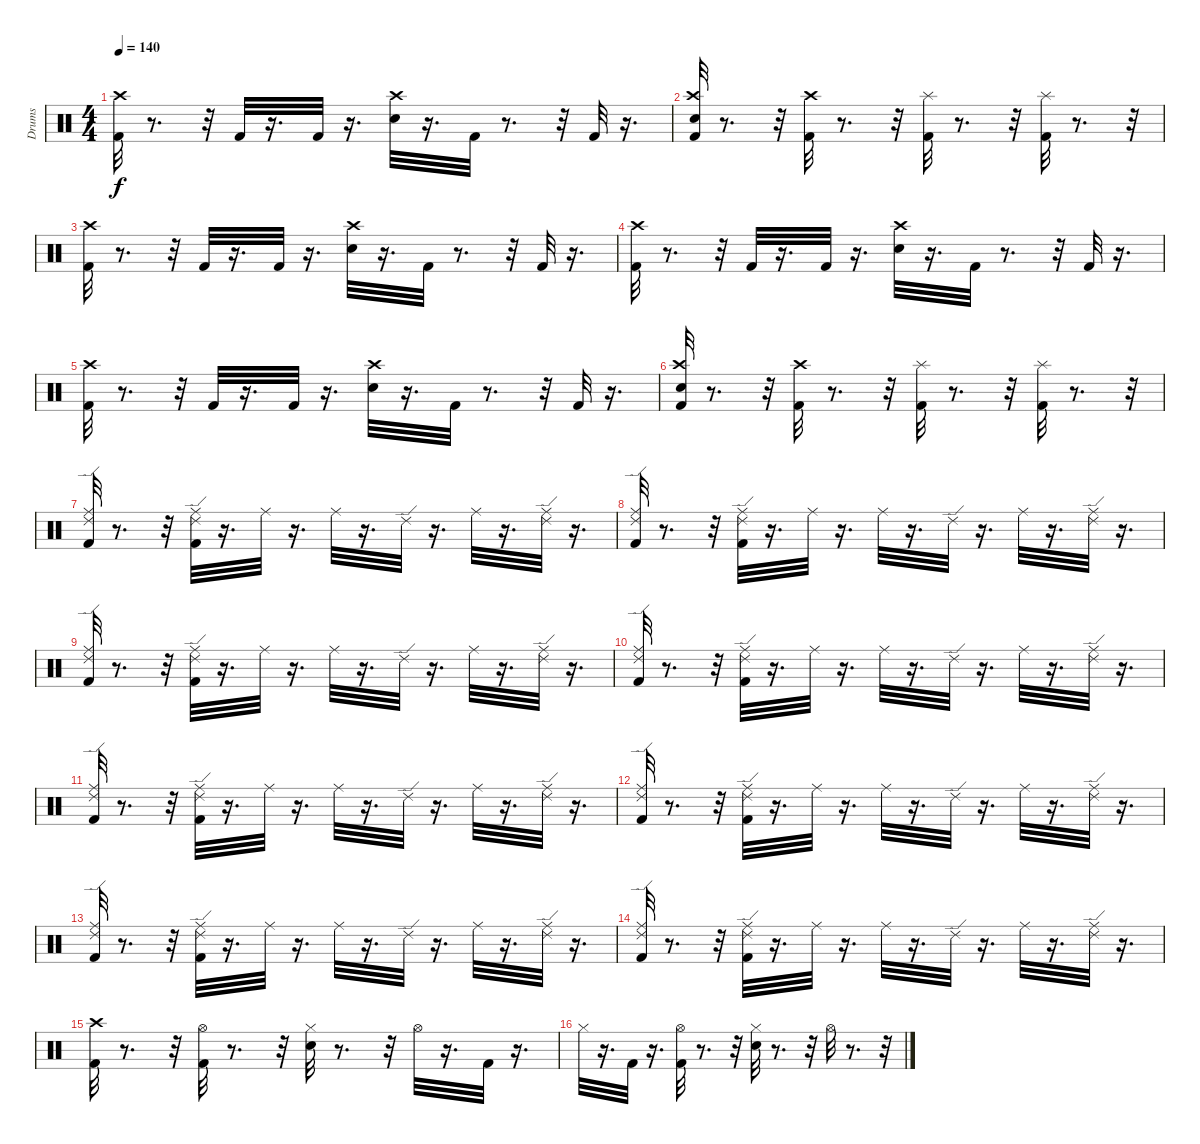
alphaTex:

\track ("Drums" "Drums") {instrument percussion}
\staff {score}
\articulation defaults
\ts (4 4)
\tempo 140
\clef neutral
\ks c
("Kick (hit) 2" "Crash high (hit)").32{dy f} r.8{d} r.32 "Kick (hit) 2".32 r.16{d} "Kick (hit) 2".32 r.16{d} ("Electric Snare (hit)" "Crash high (hit)").32 r.16{d} "Kick (hit) 2".32 r.8{d} r.32 "Kick (hit) 2".32 r.16{d} |
("Kick (hit) 2" "Electric Snare (hit)" "Crash high (hit)").32 r.8{d} r.32 ("Kick (hit) 2" "Crash high (hit)").32 r.8{d} r.32 ("Kick (hit) 2" "Splash (hit)").32 r.8{d} r.32 ("Kick (hit) 2" "Splash (hit)").32 r.8{d} r.32 |
("Kick (hit) 2" "Crash high (hit)").32 r.8{d} r.32 "Kick (hit) 2".32 r.16{d} "Kick (hit) 2".32 r.16{d} ("Electric Snare (hit)" "Crash high (hit)").32 r.16{d} "Kick (hit) 2".32 r.8{d} r.32 "Kick (hit) 2".32 r.16{d} |
("Kick (hit) 2" "Crash high (hit)").32 r.8{d} r.32 "Kick (hit) 2".32 r.16{d} "Kick (hit) 2".32 r.16{d} ("Electric Snare (hit)" "Crash high (hit)").32 r.16{d} "Kick (hit) 2".32 r.8{d} r.32 "Kick (hit) 2".32 r.16{d} |
("Kick (hit) 2" "Crash high (hit)").32 r.8{d} r.32 "Kick (hit) 2".32 r.16{d} "Kick (hit) 2".32 r.16{d} ("Electric Snare (hit)" "Crash high (hit)").32 r.16{d} "Kick (hit) 2".32 r.8{d} r.32 "Kick (hit) 2".32 r.16{d} |
("Kick (hit) 2" "Electric Snare (hit)" "Crash high (hit)").32 r.8{d} r.32 ("Kick (hit) 2" "Crash high (hit)").32 r.8{d} r.32 ("Kick (hit) 2" "Splash (hit)").32 r.8{d} r.32 ("Kick (hit) 2" "Splash (hit)").32 r.8{d} r.32 |
("Kick (hit) 2" "Ride (middle)" "Ride (edge) 2").32 r.8{d} r.32 ("Kick (hit) 2" "Ride (middle)" "Ride (edge) 2").32 r.16{d} "Ride (middle)".32 r.16{d} "Ride (middle)".32 r.16{d} "Ride (edge) 2".32 r.16{d} "Ride (middle)".32 r.16{d} ("Ride (middle)" "Ride (edge) 2").32 r.16{d} |
("Kick (hit) 2" "Ride (middle)" "Ride (edge) 2").32 r.8{d} r.32 ("Kick (hit) 2" "Ride (middle)" "Ride (edge) 2").32 r.16{d} "Ride (middle)".32 r.16{d} "Ride (middle)".32 r.16{d} "Ride (edge) 2".32 r.16{d} "Ride (middle)".32 r.16{d} ("Ride (middle)" "Ride (edge) 2").32 r.16{d} |
("Kick (hit) 2" "Ride (middle)" "Ride (edge) 2").32 r.8{d} r.32 ("Kick (hit) 2" "Ride (middle)" "Ride (edge) 2").32 r.16{d} "Ride (middle)".32 r.16{d} "Ride (middle)".32 r.16{d} "Ride (edge) 2".32 r.16{d} "Ride (middle)".32 r.16{d} ("Ride (middle)" "Ride (edge) 2").32 r.16{d} |
("Kick (hit) 2" "Ride (middle)" "Ride (edge) 2").32 r.8{d} r.32 ("Kick (hit) 2" "Ride (middle)" "Ride (edge) 2").32 r.16{d} "Ride (middle)".32 r.16{d} "Ride (middle)".32 r.16{d} "Ride (edge) 2".32 r.16{d} "Ride (middle)".32 r.16{d} ("Ride (middle)" "Ride (edge) 2").32 r.16{d} |
("Kick (hit) 2" "Ride (middle)" "Ride (edge) 2").32 r.8{d} r.32 ("Kick (hit) 2" "Ride (middle)" "Ride (edge) 2").32 r.16{d} "Ride (middle)".32 r.16{d} "Ride (middle)".32 r.16{d} "Ride (edge) 2".32 r.16{d} "Ride (middle)".32 r.16{d} ("Ride (middle)" "Ride (edge) 2").32 r.16{d} |
("Kick (hit) 2" "Ride (middle)" "Ride (edge) 2").32 r.8{d} r.32 ("Kick (hit) 2" "Ride (middle)" "Ride (edge) 2").32 r.16{d} "Ride (middle)".32 r.16{d} "Ride (middle)".32 r.16{d} "Ride (edge) 2".32 r.16{d} "Ride (middle)".32 r.16{d} ("Ride (middle)" "Ride (edge) 2").32 r.16{d} |
("Kick (hit) 2" "Ride (middle)" "Ride (edge) 2").32 r.8{d} r.32 ("Kick (hit) 2" "Ride (middle)" "Ride (edge) 2").32 r.16{d} "Ride (middle)".32 r.16{d} "Ride (middle)".32 r.16{d} "Ride (edge) 2".32 r.16{d} "Ride (middle)".32 r.16{d} ("Ride (middle)" "Ride (edge) 2").32 r.16{d} |
("Kick (hit) 2" "Ride (middle)" "Ride (edge) 2").32 r.8{d} r.32 ("Kick (hit) 2" "Ride (middle)" "Ride (edge) 2").32 r.16{d} "Ride (middle)".32 r.16{d} "Ride (middle)".32 r.16{d} "Ride (edge) 2".32 r.16{d} "Ride (middle)".32 r.16{d} ("Ride (middle)" "Ride (edge) 2").32 r.16{d} |
("Kick (hit) 2" "Crash high (hit)").32 r.8{d} r.32 ("Kick (hit) 2" "Hi-Hat (open)").32 r.8{d} r.32 ("Electric Snare (hit)" "Hi-Hat (closed)").32 r.8{d} r.32 "Hi-Hat (open)".32 r.16{d} "Kick (hit) 2".32 r.16{d} |
"Hi-Hat (closed)".32 r.16{d} "Kick (hit) 2".32 r.16{d} ("Kick (hit) 2" "Hi-Hat (open)").32 r.8{d} r.32 ("Electric Snare (hit)" "Hi-Hat (closed)").32 r.8{d} r.32 "Hi-Hat (open)".32 r.8{d} r.32
